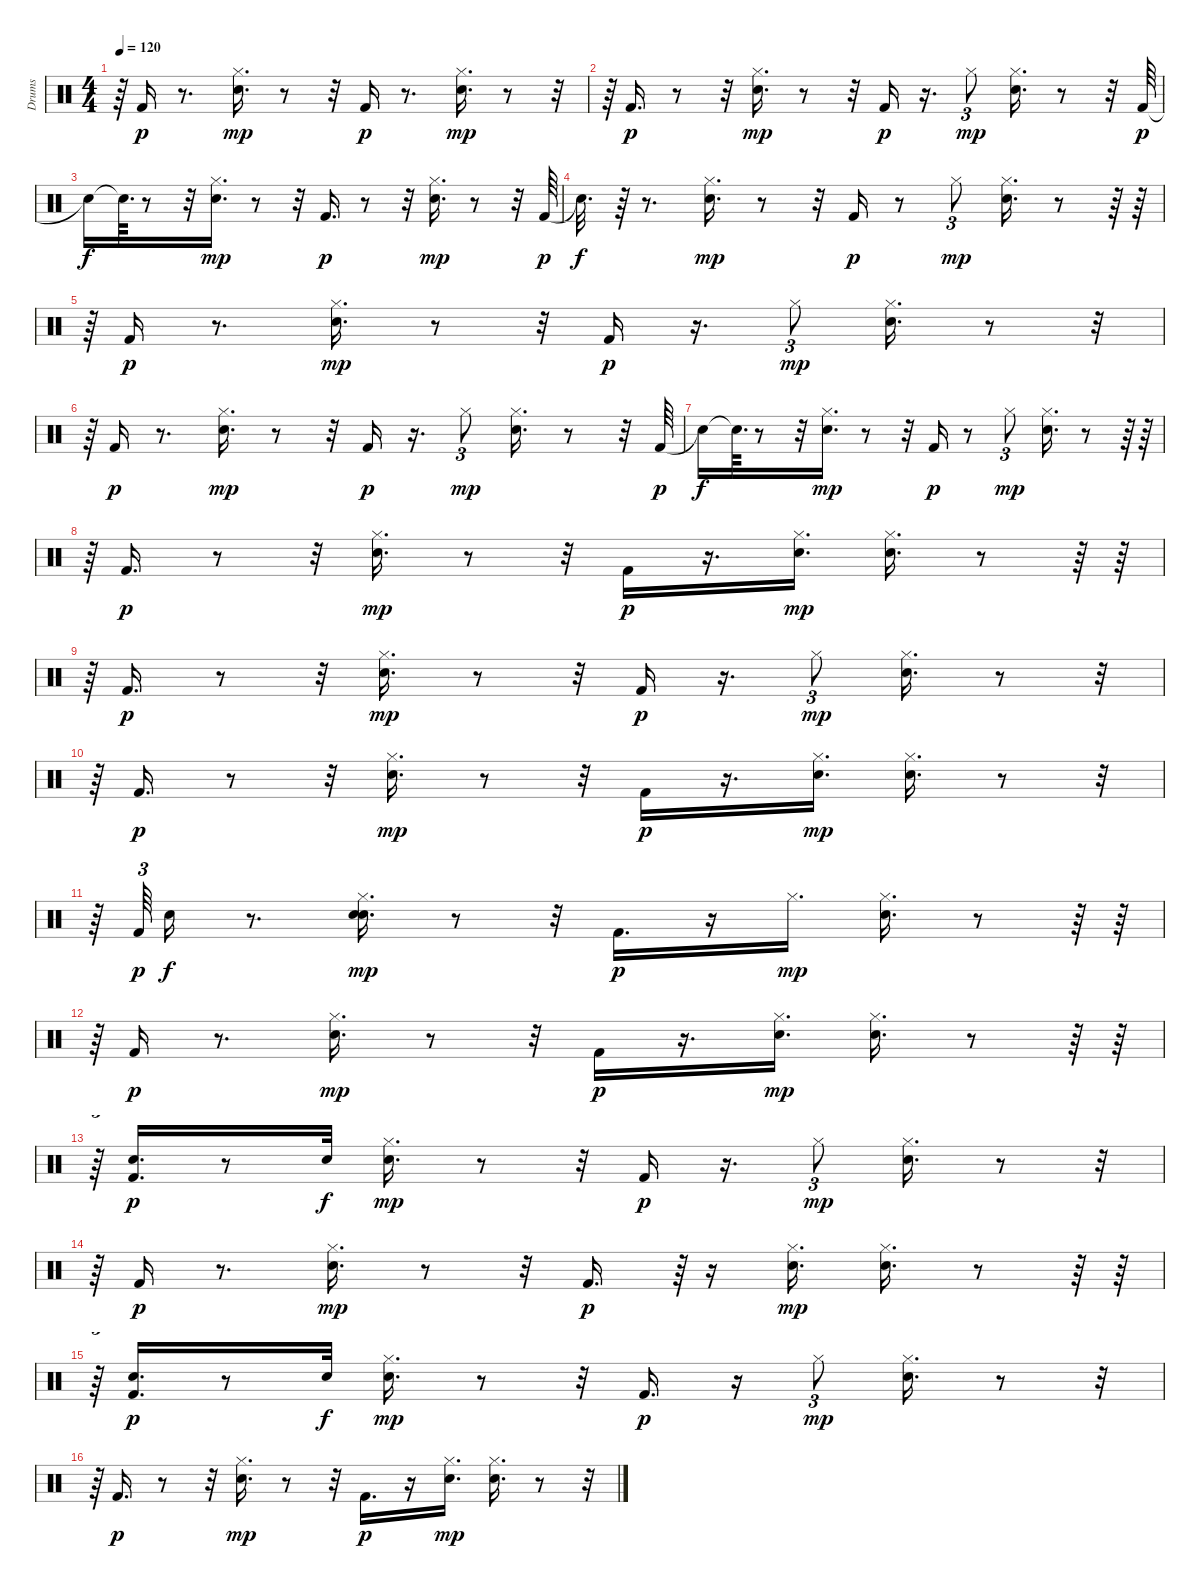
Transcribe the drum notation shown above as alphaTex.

\track ("Drums" "Drums") {instrument percussion}
\staff {score}
\articulation defaults
\ts (4 4)
\tempo 120
\clef neutral
\ks c
r.64{dy mp} "Kick (hit) 2".16{dy p} r.8{d} ("Hi-Hat (closed)" "Snare (hit) 2").16{d dy mp} r.8 r.32 "Kick (hit) 2".16{dy p} r.8{d} ("Snare (hit) 2" "Hi-Hat (closed)").16{d dy mp} r.8 r.32 |
r.64 "Kick (hit) 2".16{d dy p} r.8 r.32 ("Hi-Hat (closed)" "Snare (hit) 2").16{d dy mp} r.8 r.32 "Kick (hit) 2".16{dy p} r.16{d} "Hi-Hat (closed)".8{tu (3 2) dy mp} ("Hi-Hat (closed)" "Snare (hit) 2").16{d} r.8 r.32 "Kick (hit) 2".64{dy p} |
"Snare (hit)"{t}.16{dy f} "Snare (hit)"{t}.64{d} r.8 r.32 ("Hi-Hat (closed)" "Snare (hit) 2").16{d dy mp} r.8 r.32 "Kick (hit) 2".16{d dy p} r.8 r.32 ("Hi-Hat (closed)" "Snare (hit) 2").16{d dy mp} r.8 r.32 "Kick (hit) 2".64{dy p} |
"Snare (hit)"{t}.32{d dy f} r.64 r.8{d} ("Hi-Hat (closed)" "Snare (hit) 2").16{d dy mp} r.8 r.32 "Kick (hit) 2".16{dy p} r.8 "Hi-Hat (closed)".8{tu (3 2) dy mp} ("Hi-Hat (closed)" "Snare (hit) 2").16{d} r.8 r.64 r.64 |
r.64{tu (5 4)} "Kick (hit) 2".16{dy p} r.8{d} ("Snare (hit) 2" "Hi-Hat (closed)").16{d dy mp} r.8 r.32 "Kick (hit) 2".16{dy p} r.16{d} "Hi-Hat (closed)".8{tu (3 2) dy mp} ("Hi-Hat (closed)" "Snare (hit) 2").16{d} r.8 r.32 |
r.64 "Kick (hit) 2".16{dy p} r.8{d} ("Snare (hit) 2" "Hi-Hat (closed)").16{d dy mp} r.8 r.32 "Kick (hit) 2".16{dy p} r.16{d} "Hi-Hat (closed)".8{tu (3 2) dy mp} ("Hi-Hat (closed)" "Snare (hit) 2").16{d} r.8 r.32 "Kick (hit) 2".64{dy p} |
"Snare (hit)"{t}.16{dy f} "Snare (hit)"{t}.64{d} r.8 r.32 ("Hi-Hat (closed)" "Snare (hit) 2").16{d dy mp} r.8 r.32 "Kick (hit) 2".16{dy p} r.8 "Hi-Hat (closed)".8{tu (3 2) dy mp} ("Snare (hit) 2" "Hi-Hat (closed)").16{d} r.8 r.64 r.64 |
r.64{tu (5 4)} "Kick (hit) 2".16{d dy p} r.8 r.32 ("Hi-Hat (closed)" "Snare (hit) 2").16{d dy mp} r.8 r.32 "Kick (hit) 2".16{dy p} r.16{d} ("Snare (hit) 2" "Hi-Hat (closed)").16{d dy mp} ("Snare (hit) 2" "Hi-Hat (closed)").16{d} r.8 r.64 r.64 |
r.64{tu (5 4)} "Kick (hit) 2".16{d dy p} r.8 r.32 ("Hi-Hat (closed)" "Snare (hit) 2").16{d dy mp} r.8 r.32 "Kick (hit) 2".16{dy p} r.16{d} "Hi-Hat (closed)".8{tu (3 2) dy mp} ("Hi-Hat (closed)" "Snare (hit) 2").16{d} r.8 r.32 |
r.64 "Kick (hit) 2".16{d dy p} r.8 r.32 ("Snare (hit) 2" "Hi-Hat (closed)").16{d dy mp} r.8 r.32 "Kick (hit) 2".16{dy p} r.16{d} ("Snare (hit) 2" "Hi-Hat (closed)").16{d dy mp} ("Snare (hit) 2" "Hi-Hat (closed)").16{d} r.8 r.32 |
r.64 "Kick (hit) 2".64{tu (3 2) dy p} "Hand Clap (hit)".16{dy f} r.8{d} ("Hi-Hat (closed)" "Snare (hit) 2" "Hand Clap (hit)").16{d dy mp} r.8 r.32 "Kick (hit) 2".16{d dy p} r.16 "Hi-Hat (closed)".16{d dy mp} ("Snare (hit) 2" "Hi-Hat (closed)").16{d} r.8 r.64 r.64 |
r.64{tu (5 4)} "Kick (hit) 2".16{dy p} r.8{d} ("Hi-Hat (closed)" "Snare (hit) 2").16{d dy mp} r.8 r.32 "Kick (hit) 2".16{dy p} r.16{d} ("Snare (hit) 2" "Hi-Hat (closed)").16{d dy mp} ("Snare (hit) 2" "Hi-Hat (closed)").16{d} r.8 r.64 r.64 |
r.64{tu (5 4)} ("Kick (hit) 2" "Hand Clap (hit)").16{d dy p} r.8 "Hand Clap (hit)".32{dy f} ("Snare (hit) 2" "Hi-Hat (closed)").16{d dy mp} r.8 r.32 "Kick (hit) 2".16{dy p} r.16{d} "Hi-Hat (closed)".8{tu (3 2) dy mp} ("Hi-Hat (closed)" "Snare (hit) 2").16{d} r.8 r.32 |
r.64 "Kick (hit) 2".16{dy p} r.8{d} ("Snare (hit) 2" "Hi-Hat (closed)").16{d dy mp} r.8 r.32 "Kick (hit) 2".16{d dy p} r.64{tu (3 2)} r.16 ("Snare (hit) 2" "Hi-Hat (closed)").16{d dy mp} ("Snare (hit) 2" "Hi-Hat (closed)").16{d} r.8 r.64 r.64 |
r.64{tu (5 4)} ("Hand Clap (hit)" "Kick (hit) 2").16{d dy p} r.8 "Hand Clap (hit)".32{dy f} ("Hi-Hat (closed)" "Snare (hit) 2").16{d dy mp} r.8 r.32 "Kick (hit) 2".16{d dy p} r.16 "Hi-Hat (closed)".8{tu (3 2) dy mp} ("Hi-Hat (closed)" "Snare (hit) 2").16{d} r.8 r.32 |
r.64 "Kick (hit) 2".16{d dy p} r.8 r.32 ("Hi-Hat (closed)" "Snare (hit) 2").16{d dy mp} r.8 r.32 "Kick (hit) 2".16{d dy p} r.16 ("Hi-Hat (closed)" "Snare (hit) 2").16{d dy mp} ("Snare (hit) 2" "Hi-Hat (closed)").16{d} r.8 r.32
